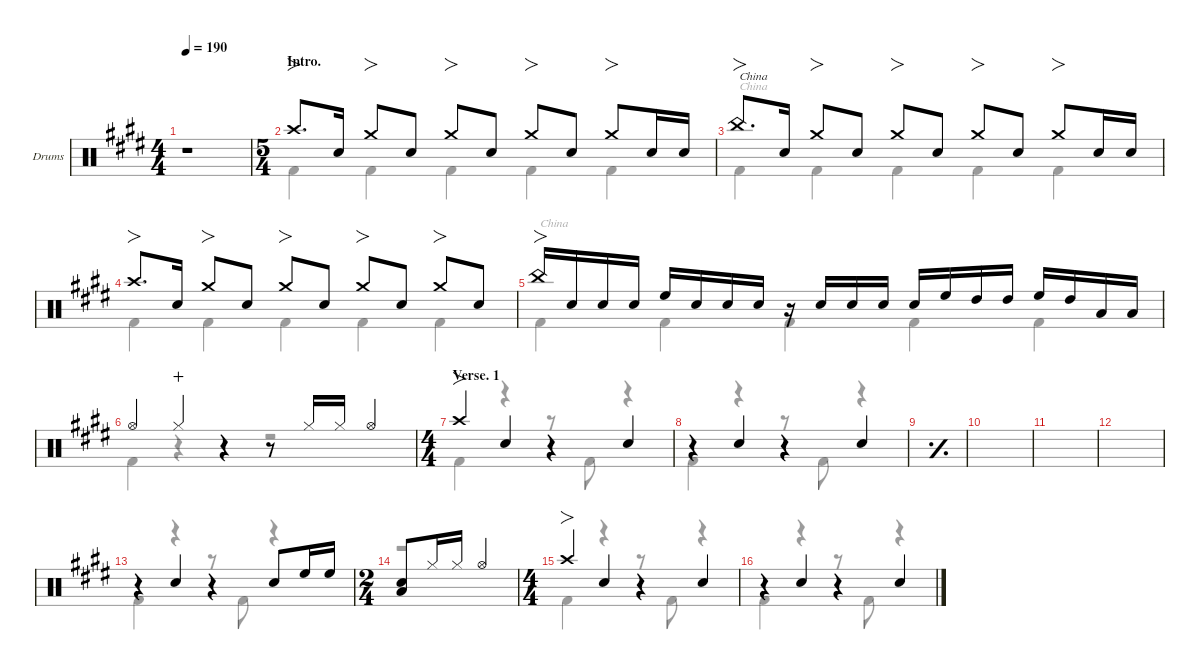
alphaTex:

\defaultSystemsLayout 4
\hideDynamics
\bracketExtendMode nobrackets
\firstSystemTrackNameOrientation horizontal
\track ("Drums" "Drums") {defaultSystemsLayout 4 instrument percussion}
\staff {score}
\articulation defaults
\voice
\ts (4 4)
\beaming (8 4 4)
\tempo 190
\clef neutral
\ks e
r.1{dy f} |
\ts (5 4)
\beaming (8 2 2 2 2 2)
\section ("" "Intro.")
"Crash high (hit)"{acc forcenatural}.8{fo d} "Snare (hit) 2"{acc forcenatural}.16{beam split} "Crash medium (hit)"{acc forcenatural}.8{fo beam merge} "Snare (hit) 2"{acc forcenatural}.8{beam split} "Crash medium (hit)"{acc forcenatural}.8{fo beam merge} "Snare (hit) 2"{acc forcenatural}.8 "Crash medium (hit)"{acc forcenatural}.8{fo} "Snare (hit) 2"{acc forcenatural}.8{beam split} "Crash medium (hit)"{acc forcenatural}.8{fo} "Snare (hit) 2"{acc forcenatural}.16 "Snare (hit) 2"{acc forcenatural}.16 |
"China (hit)"{acc forcenatural}.8{fo d txt "China"} "Snare (hit) 2"{acc forcenatural}.16{beam split} "Crash medium (hit)"{acc forcenatural}.8{fo beam merge} "Snare (hit) 2"{acc forcenatural}.8{beam split} "Crash medium (hit)"{acc forcenatural}.8{fo beam merge} "Snare (hit) 2"{acc forcenatural}.8 "Crash medium (hit)"{acc forcenatural}.8{fo} "Snare (hit) 2"{acc forcenatural}.8{beam split} "Crash medium (hit)"{acc forcenatural}.8{fo} "Snare (hit) 2"{acc forcenatural}.16 "Snare (hit) 2"{acc forcenatural}.16 |
"Crash high (hit)"{acc forcenatural}.8{fo d} "Snare (hit) 2"{acc forcenatural}.16{beam split} "Crash medium (hit)"{acc forcenatural}.8{fo beam merge} "Snare (hit) 2"{acc forcenatural}.8{beam split} "Crash medium (hit)"{acc forcenatural}.8{fo beam merge} "Snare (hit) 2"{acc forcenatural}.8 "Crash medium (hit)"{acc forcenatural}.8{fo} "Snare (hit) 2"{acc forcenatural}.8{beam split} "Crash medium (hit)"{acc forcenatural}.8{fo} "Snare (hit) 2"{acc forcenatural}.8 |
"China (hit)"{acc forcenatural}.16{fo} "Snare (hit) 2"{acc forcenatural}.16{dy mf} "Snare (hit) 2"{acc forcenatural}.16{dy f} "Snare (hit) 2"{acc forcenatural}.16{dy mf beam split} "High Floor Tom (hit)"{acc forcenatural}.16{dy f} "Snare (hit) 2"{acc forcenatural}.16{dy mf} "Snare (hit) 2"{acc forcenatural}.16{dy f} "Snare (hit) 2"{acc forcenatural}.16{dy mf beam split} r.16 "Snare (hit) 2"{acc forcenatural}.16 "Snare (hit) 2"{acc forcenatural}.16{dy f} "Snare (hit) 2"{acc forcenatural}.16{dy mf beam split} "Snare (hit) 2"{acc forcenatural}.16{dy f} "High Floor Tom (hit)"{acc forcenatural}.16{dy mf} "High Tom (hit)"{acc forcenatural}.16 "High Tom (hit)"{acc forcenatural}.16{beam split} "High Floor Tom (hit)"{acc forcenatural}.16 "High Tom (hit)"{acc forcenatural}.16 "Low Tom (hit)"{acc forcenatural}.16 "Low Tom (hit)"{acc forcenatural}.16 |
"Hi-Hat (open)"{acc forcenatural}.4{dy f} "Hi-Hat (closed)"{acc forcenatural}.4{dy mf wahc} r.4 r.8 "Hi-Hat (closed)"{acc forcenatural}.16{dy f} "Hi-Hat (closed)"{acc forcenatural}.16{dy mf} "Hi-Hat (open)"{acc forcenatural}.4{dy f} |
\ts (4 4)
\beaming (8 4 4)
\section ("" "Verse. 1")
"Crash high (hit)"{acc forcenatural}.4{fo} "Snare (hit) 2"{acc forcenatural}.4 r.4 "Snare (hit) 2"{acc forcenatural}.4 |
r.4 "Snare (hit) 2"{acc forcenatural}.4 r.4 "Snare (hit) 2"{acc forcenatural}.4 |
\simile simple
|
|
|
|
\simile none
r.4 "Snare (hit) 2"{acc forcenatural}.4 r.4 "Snare (hit) 2"{acc forcenatural}.8 "High Floor Tom (hit)"{acc forcenatural}.16 "High Floor Tom (hit)"{acc forcenatural}.16 |
\ts (2 4)
\beaming (8 2 2)
("Snare (hit) 2"{acc forcenatural} "Low Tom (hit)"{acc forcenatural}).8 "Hi-Hat (closed)"{acc forcenatural}.16 "Hi-Hat (closed)"{acc forcenatural}.16{dy mf} "Hi-Hat (open)"{acc forcenatural}.4{dy f} |
\ts (4 4)
\beaming (8 4 4)
"Crash high (hit)"{acc forcenatural}.4{fo} "Snare (hit) 2"{acc forcenatural}.4 r.4 "Snare (hit) 2"{acc forcenatural}.4 |
r.4 "Snare (hit) 2"{acc forcenatural}.4 r.4 "Snare (hit) 2"{acc forcenatural}.4
\voice
\clef neutral
\ottava regular
\simile none
\ks e
r.1{dy f} |
"Kick (hit) 2"{acc forcenatural}.4 "Kick (hit) 2"{acc forcenatural}.4 "Kick (hit) 2"{acc forcenatural}.4 "Kick (hit) 2"{acc forcenatural}.4 "Kick (hit) 2"{acc forcenatural}.4 |
"Kick (hit) 2"{acc forcenatural}.4{txt "China"} "Kick (hit) 2"{acc forcenatural}.4 "Kick (hit) 2"{acc forcenatural}.4 "Kick (hit) 2"{acc forcenatural}.4 "Kick (hit) 2"{acc forcenatural}.4 |
"Kick (hit) 2"{acc forcenatural}.4 "Kick (hit) 2"{acc forcenatural}.4 "Kick (hit) 2"{acc forcenatural}.4 "Kick (hit) 2"{acc forcenatural}.4 "Kick (hit) 2"{acc forcenatural}.4 |
"Kick (hit) 2"{acc forcenatural}.4{txt "China"} "Kick (hit) 2"{acc forcenatural}.4 "Kick (hit) 2"{acc forcenatural}.4 "Kick (hit) 2"{acc forcenatural}.4 "Kick (hit) 2"{acc forcenatural}.4 |
"Kick (hit) 2"{acc forcenatural}.4 r.4 r.4 r.2 |
"Kick (hit) 2"{acc forcenatural}.4 r.4 r.8 "Kick (hit) 2"{acc forcenatural}.8 r.4 |
"Kick (hit) 2"{acc forcenatural}.4 r.4 r.8 "Kick (hit) 2"{acc forcenatural}.8 r.4 |
\simile simple
|
|
|
|
\simile none "Kick (hit) 2"{acc forcenatural}.4
r.4 r.8 "Kick (hit) 2"{acc forcenatural}.8 r.4 |
r.2 |
"Kick (hit) 2"{acc forcenatural}.4 r.4 r.8 "Kick (hit) 2"{acc forcenatural}.8 r.4 |
"Kick (hit) 2"{acc forcenatural}.4 r.4 r.8 "Kick (hit) 2"{acc forcenatural}.8 r.4
